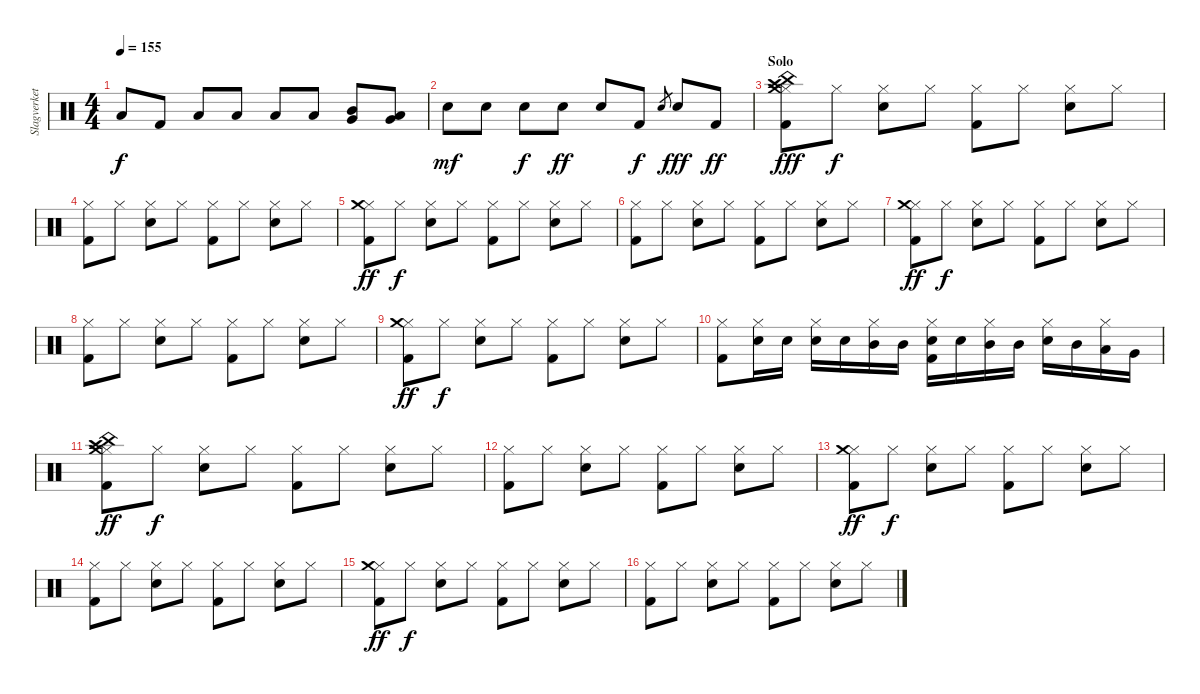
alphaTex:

\track ("Slagverket!" "Slagverket") {instrument percussion}
\staff {score}
\articulation defaults
\ts (4 4)
\tempo 155
\clef neutral
\ks c "Low Floor Tom (hit)".8{dy f} "Kick (hit) 2".8 "Low Tom (hit)".8 "Low Tom (hit)".8 "Low Floor Tom (hit)".8 "Low Floor Tom (hit)".8
("Mid Tom (hit)" "Very Low Tom (hit)").8 ("Low Tom (hit)" "Very Low Tom (hit)").8 |
"Electric Snare (hit)".8{dy mf} "Electric Snare (hit)".8 "Electric Snare (hit)".8{dy f} "Electric Snare (hit)".8{dy ff} "Electric Snare (hit)".8 "Kick (hit) 2".8{dy f} "Electric Snare (hit)".8{gr} "Snare (hit) 2".8{dy fff} "Kick (hit) 2".8{dy ff} |
\section ("" "Solo")
("Hi-Hat (closed)" "Crash medium (hit)" "China (hit)" "Crash high (hit)" "Kick (hit) 2").8{dy fff} "Hi-Hat (closed)".8{dy f} ("Hi-Hat (closed)" "Electric Snare (hit)").8 "Hi-Hat (closed)".8 ("Hi-Hat (closed)" "Kick (hit) 2").8 "Hi-Hat (closed)".8 ("Hi-Hat (closed)" "Electric Snare (hit)").8 "Hi-Hat (closed)".8 |
("Hi-Hat (closed)" "Kick (hit) 2").8 "Hi-Hat (closed)".8 ("Hi-Hat (closed)" "Electric Snare (hit)").8 "Hi-Hat (closed)".8 ("Hi-Hat (closed)" "Kick (hit) 2").8 "Hi-Hat (closed)".8 ("Hi-Hat (closed)" "Electric Snare (hit)").8 "Hi-Hat (closed)".8 |
("Hi-Hat (closed)" "Crash medium (hit)" "Kick (hit) 2").8{dy ff} "Hi-Hat (closed)".8{dy f} ("Hi-Hat (closed)" "Electric Snare (hit)").8 "Hi-Hat (closed)".8 ("Hi-Hat (closed)" "Kick (hit) 2").8 "Hi-Hat (closed)".8 ("Hi-Hat (closed)" "Electric Snare (hit)").8 "Hi-Hat (closed)".8 |
("Hi-Hat (closed)" "Kick (hit) 2").8 "Hi-Hat (closed)".8 ("Hi-Hat (closed)" "Electric Snare (hit)").8 "Hi-Hat (closed)".8 ("Hi-Hat (closed)" "Kick (hit) 2").8 "Hi-Hat (closed)".8 ("Hi-Hat (closed)" "Electric Snare (hit)").8 "Hi-Hat (closed)".8 |
("Hi-Hat (closed)" "Crash medium (hit)" "Kick (hit) 2").8{dy ff} "Hi-Hat (closed)".8{dy f} ("Hi-Hat (closed)" "Electric Snare (hit)").8 "Hi-Hat (closed)".8 ("Hi-Hat (closed)" "Kick (hit) 2").8 "Hi-Hat (closed)".8 ("Hi-Hat (closed)" "Electric Snare (hit)").8 "Hi-Hat (closed)".8 |
("Hi-Hat (closed)" "Kick (hit) 2").8 "Hi-Hat (closed)".8 ("Hi-Hat (closed)" "Electric Snare (hit)").8 "Hi-Hat (closed)".8 ("Hi-Hat (closed)" "Kick (hit) 2").8 "Hi-Hat (closed)".8 ("Hi-Hat (closed)" "Electric Snare (hit)").8 "Hi-Hat (closed)".8 |
("Hi-Hat (closed)" "Crash medium (hit)" "Kick (hit) 2").8{dy ff} "Hi-Hat (closed)".8{dy f} ("Hi-Hat (closed)" "Electric Snare (hit)").8 "Hi-Hat (closed)".8 ("Hi-Hat (closed)" "Kick (hit) 2").8 "Hi-Hat (closed)".8 ("Hi-Hat (closed)" "Electric Snare (hit)").8 "Hi-Hat (closed)".8 |
\section ("" "")
("Hi-Hat (closed)" "Kick (hit) 2").8 ("Hi-Hat (closed)" "Electric Snare (hit)").16 "Electric Snare (hit)".16 ("Hi-Hat (closed)" "Electric Snare (hit)").16 "Electric Snare (hit)".16 ("Hi-Hat (closed)" "Mid Tom (hit)").16 "Mid Tom (hit)".16 ("Hi-Hat (closed)" "Electric Snare (hit)" "Kick (hit) 2").16 "Electric Snare (hit)".16 ("Hi-Hat (closed)" "Mid Tom (hit)").16 "Mid Tom (hit)".16 ("Hi-Hat (closed)" "Electric Snare (hit)").16 "Mid Tom (hit)".16 ("Hi-Hat (closed)" "Low Tom (hit)").16 "Very Low Tom (hit)".16 |
("Hi-Hat (closed)" "Crash medium (hit)" "Crash high (hit)" "China (hit)" "Kick (hit) 2").8{dy ff} "Hi-Hat (closed)".8{dy f} ("Hi-Hat (closed)" "Electric Snare (hit)").8 "Hi-Hat (closed)".8 ("Hi-Hat (closed)" "Kick (hit) 2").8 "Hi-Hat (closed)".8 ("Hi-Hat (closed)" "Electric Snare (hit)").8 "Hi-Hat (closed)".8 |
("Hi-Hat (closed)" "Kick (hit) 2").8 "Hi-Hat (closed)".8 ("Hi-Hat (closed)" "Electric Snare (hit)").8 "Hi-Hat (closed)".8 ("Hi-Hat (closed)" "Kick (hit) 2").8 "Hi-Hat (closed)".8 ("Hi-Hat (closed)" "Electric Snare (hit)").8 "Hi-Hat (closed)".8 |
("Hi-Hat (closed)" "Crash medium (hit)" "Kick (hit) 2").8{dy ff} "Hi-Hat (closed)".8{dy f} ("Hi-Hat (closed)" "Electric Snare (hit)").8 "Hi-Hat (closed)".8 ("Hi-Hat (closed)" "Kick (hit) 2").8 "Hi-Hat (closed)".8 ("Hi-Hat (closed)" "Electric Snare (hit)").8 "Hi-Hat (closed)".8 |
("Hi-Hat (closed)" "Kick (hit) 2").8 "Hi-Hat (closed)".8 ("Hi-Hat (closed)" "Electric Snare (hit)").8 "Hi-Hat (closed)".8 ("Hi-Hat (closed)" "Kick (hit) 2").8 "Hi-Hat (closed)".8 ("Hi-Hat (closed)" "Electric Snare (hit)").8 "Hi-Hat (closed)".8 |
("Hi-Hat (closed)" "Crash medium (hit)" "Kick (hit) 2").8{dy ff} "Hi-Hat (closed)".8{dy f} ("Hi-Hat (closed)" "Electric Snare (hit)").8 "Hi-Hat (closed)".8 ("Hi-Hat (closed)" "Kick (hit) 2").8 "Hi-Hat (closed)".8 ("Hi-Hat (closed)" "Electric Snare (hit)").8 "Hi-Hat (closed)".8 |
("Hi-Hat (closed)" "Kick (hit) 2").8 "Hi-Hat (closed)".8 ("Hi-Hat (closed)" "Electric Snare (hit)").8 "Hi-Hat (closed)".8 ("Hi-Hat (closed)" "Kick (hit) 2").8 "Hi-Hat (closed)".8 ("Hi-Hat (closed)" "Electric Snare (hit)").8 "Hi-Hat (closed)".8
